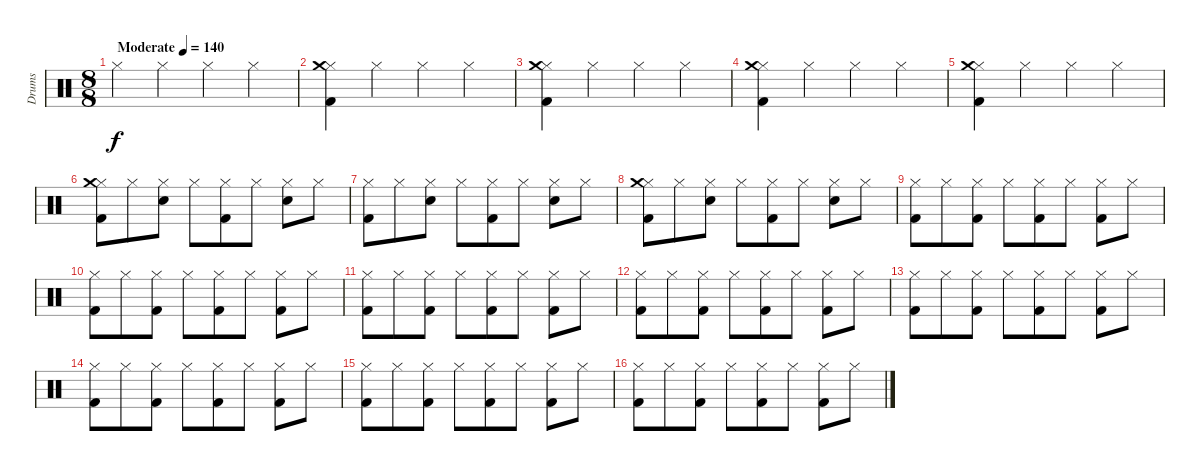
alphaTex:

\track ("Drums" "Drums") {instrument percussion}
\staff {score}
\articulation defaults
\ts (8 8)
\tempo (140 "Moderate")
\clef neutral
\ks c "Hi-Hat (closed)".4{dy f} "Hi-Hat (closed)".4 "Hi-Hat (closed)".4 "Hi-Hat (closed)".4
|
("Hi-Hat (closed)" "Kick (hit) 2" "Crash medium (hit)").4 "Hi-Hat (closed)".4 "Hi-Hat (closed)".4 "Hi-Hat (closed)".4 |
("Hi-Hat (closed)" "Kick (hit) 2" "Crash medium (hit)").4 "Hi-Hat (closed)".4 "Hi-Hat (closed)".4 "Hi-Hat (closed)".4 |
("Hi-Hat (closed)" "Kick (hit) 2" "Crash medium (hit)").4 "Hi-Hat (closed)".4 "Hi-Hat (closed)".4 "Hi-Hat (closed)".4 |
("Hi-Hat (closed)" "Kick (hit) 2" "Crash medium (hit)").4 "Hi-Hat (closed)".4 "Hi-Hat (closed)".4 "Hi-Hat (closed)".4 |
("Hi-Hat (closed)" "Kick (hit) 2" "Crash medium (hit)").8 "Hi-Hat (closed)".8 ("Hi-Hat (closed)" "Snare (hit) 2").8 "Hi-Hat (closed)".8 ("Hi-Hat (closed)" "Kick (hit) 2").8 "Hi-Hat (closed)".8 ("Hi-Hat (closed)" "Snare (hit) 2").8 "Hi-Hat (closed)".8 |
("Hi-Hat (closed)" "Kick (hit) 2").8 "Hi-Hat (closed)".8 ("Hi-Hat (closed)" "Snare (hit) 2").8 "Hi-Hat (closed)".8 ("Hi-Hat (closed)" "Kick (hit) 2").8 "Hi-Hat (closed)".8 ("Hi-Hat (closed)" "Snare (hit) 2").8 "Hi-Hat (closed)".8 |
("Hi-Hat (closed)" "Kick (hit) 2" "Crash medium (hit)").8 "Hi-Hat (closed)".8 ("Hi-Hat (closed)" "Snare (hit) 2").8 "Hi-Hat (closed)".8 ("Hi-Hat (closed)" "Kick (hit) 2").8 "Hi-Hat (closed)".8 ("Hi-Hat (closed)" "Snare (hit) 2").8 "Hi-Hat (closed)".8 |
("Hi-Hat (closed)" "Kick (hit) 2").8 "Hi-Hat (closed)".8 ("Hi-Hat (closed)" "Kick (hit) 2").8 "Hi-Hat (closed)".8 ("Hi-Hat (closed)" "Kick (hit) 2").8 "Hi-Hat (closed)".8 ("Hi-Hat (closed)" "Kick (hit) 2").8 "Hi-Hat (closed)".8 |
("Hi-Hat (closed)" "Kick (hit) 2").8 "Hi-Hat (closed)".8 ("Hi-Hat (closed)" "Kick (hit) 2").8 "Hi-Hat (closed)".8 ("Hi-Hat (closed)" "Kick (hit) 2").8 "Hi-Hat (closed)".8 ("Hi-Hat (closed)" "Kick (hit) 2").8 "Hi-Hat (closed)".8 |
("Hi-Hat (closed)" "Kick (hit) 2").8 "Hi-Hat (closed)".8 ("Hi-Hat (closed)" "Kick (hit) 2").8 "Hi-Hat (closed)".8 ("Hi-Hat (closed)" "Kick (hit) 2").8 "Hi-Hat (closed)".8 ("Hi-Hat (closed)" "Kick (hit) 2").8 "Hi-Hat (closed)".8 |
("Hi-Hat (closed)" "Kick (hit) 2").8 "Hi-Hat (closed)".8 ("Hi-Hat (closed)" "Kick (hit) 2").8 "Hi-Hat (closed)".8 ("Hi-Hat (closed)" "Kick (hit) 2").8 "Hi-Hat (closed)".8 ("Hi-Hat (closed)" "Kick (hit) 2").8 "Hi-Hat (closed)".8 |
("Hi-Hat (closed)" "Kick (hit) 2").8 "Hi-Hat (closed)".8 ("Hi-Hat (closed)" "Kick (hit) 2").8 "Hi-Hat (closed)".8 ("Hi-Hat (closed)" "Kick (hit) 2").8 "Hi-Hat (closed)".8 ("Hi-Hat (closed)" "Kick (hit) 2").8 "Hi-Hat (closed)".8 |
("Hi-Hat (closed)" "Kick (hit) 2").8 "Hi-Hat (closed)".8 ("Hi-Hat (closed)" "Kick (hit) 2").8 "Hi-Hat (closed)".8 ("Hi-Hat (closed)" "Kick (hit) 2").8 "Hi-Hat (closed)".8 ("Hi-Hat (closed)" "Kick (hit) 2").8 "Hi-Hat (closed)".8 |
("Hi-Hat (closed)" "Kick (hit) 2").8 "Hi-Hat (closed)".8 ("Hi-Hat (closed)" "Kick (hit) 2").8 "Hi-Hat (closed)".8 ("Hi-Hat (closed)" "Kick (hit) 2").8 "Hi-Hat (closed)".8 ("Hi-Hat (closed)" "Kick (hit) 2").8 "Hi-Hat (closed)".8 |
("Hi-Hat (closed)" "Kick (hit) 2").8 "Hi-Hat (closed)".8 ("Hi-Hat (closed)" "Kick (hit) 2").8 "Hi-Hat (closed)".8 ("Hi-Hat (closed)" "Kick (hit) 2").8 "Hi-Hat (closed)".8 ("Hi-Hat (closed)" "Kick (hit) 2").8 "Hi-Hat (closed)".8
